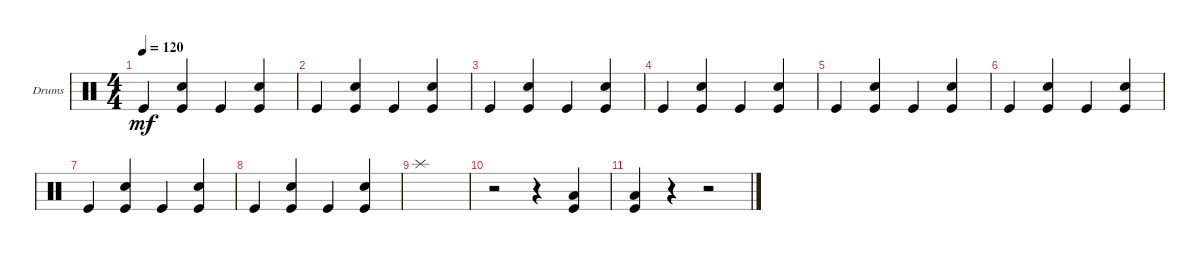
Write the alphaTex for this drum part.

\bracketExtendMode groupsimilarinstruments
\firstSystemTrackNameOrientation horizontal
\otherSystemsTrackNameOrientation horizontal
\track ("Drumkit" "Drums") {instrument percussion}
\staff {score}
\articulation defaults
\ts (4 4)
\tempo 120
\clef neutral
\ks c "Kick (hit)".4{dy mf}
("Snare (hit) 2" "Kick (hit)").4 "Kick (hit)".4 ("Snare (hit) 2" "Kick (hit)").4 |
"Kick (hit)".4 ("Snare (hit) 2" "Kick (hit)").4 "Kick (hit)".4 ("Snare (hit) 2" "Kick (hit)").4 |
"Kick (hit)".4 ("Snare (hit) 2" "Kick (hit)").4 "Kick (hit)".4 ("Snare (hit) 2" "Kick (hit)").4 |
"Kick (hit)".4 ("Snare (hit) 2" "Kick (hit)").4 "Kick (hit)".4 ("Snare (hit) 2" "Kick (hit)").4 |
"Kick (hit)".4 ("Snare (hit) 2" "Kick (hit)").4 "Kick (hit)".4 ("Snare (hit) 2" "Kick (hit)").4 |
"Kick (hit)".4 ("Snare (hit) 2" "Kick (hit)").4 "Kick (hit)".4 ("Snare (hit) 2" "Kick (hit)").4 |
"Kick (hit)".4 ("Snare (hit) 2" "Kick (hit)").4 "Kick (hit)".4 ("Snare (hit) 2" "Kick (hit)").4 |
"Kick (hit)".4 ("Snare (hit) 2" "Kick (hit)").4 "Kick (hit)".4 ("Snare (hit) 2" "Kick (hit)").4 |
"Splash (hit)".1 |
r.2 r.4 ("Low Tom (hit)" "Kick (hit)").4 |
("Low Tom (hit)" "Kick (hit)").4 r.4 r.2
